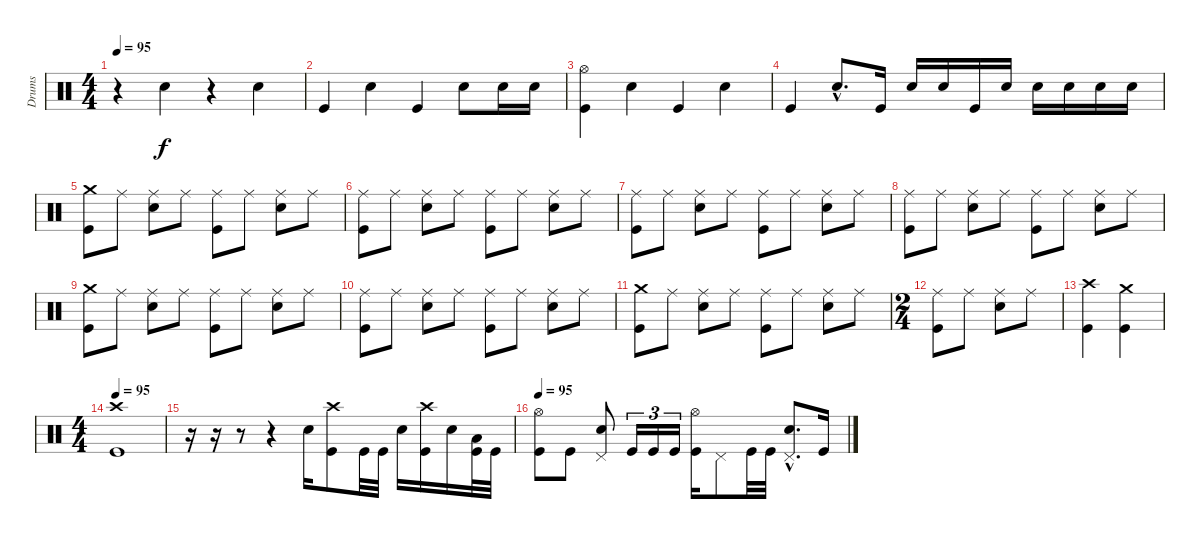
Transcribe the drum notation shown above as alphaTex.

\track ("Drums" "Drums") {instrument percussion}
\staff {score}
\articulation defaults
\ts (4 4)
\tempo 95
\clef neutral
\ks c
r.4{dy f} "Electric Snare (hit)".4 r.4 "Electric Snare (hit)".4 |
"Kick (hit)".4 "Electric Snare (hit)".4 "Kick (hit)".4 "Electric Snare (hit)".8 "Electric Snare (hit)".16 "Electric Snare (hit)".16 |
("Hi-Hat (open)" "Kick (hit)").4 "Electric Snare (hit)".4 "Kick (hit)".4 "Electric Snare (hit)".4 |
"Kick (hit)".4 "Electric Snare (hit)"{hac}.8{d} "Kick (hit)".16 "Electric Snare (hit)".16 "Electric Snare (hit)".16 "Kick (hit)".16 "Electric Snare (hit)".16 "Electric Snare (hit)".16 "Electric Snare (hit)".16 "Electric Snare (hit)".16 "Electric Snare (hit)".16 |
("Crash medium (hit)" "Kick (hit)").8 "Ride (middle)".8 ("Ride (middle)" "Electric Snare (hit)").8 "Ride (middle)".8 ("Ride (middle)" "Kick (hit)").8 "Ride (middle)".8 ("Ride (middle)" "Electric Snare (hit)").8 "Ride (middle)".8 |
("Ride (middle)" "Kick (hit)").8 "Ride (middle)".8 ("Ride (middle)" "Electric Snare (hit)").8 "Ride (middle)".8 ("Ride (middle)" "Kick (hit)").8 "Ride (middle)".8 ("Ride (middle)" "Electric Snare (hit)").8 "Ride (middle)".8 |
("Ride (middle)" "Kick (hit)").8 "Ride (middle)".8 ("Ride (middle)" "Electric Snare (hit)").8 "Ride (middle)".8 ("Ride (middle)" "Kick (hit)").8 "Ride (middle)".8 ("Ride (middle)" "Electric Snare (hit)").8 "Ride (middle)".8 |
("Ride (middle)" "Kick (hit)").8 "Ride (middle)".8 ("Ride (middle)" "Electric Snare (hit)").8 "Ride (middle)".8 ("Ride (middle)" "Kick (hit)").8 "Ride (middle)".8 ("Ride (middle)" "Electric Snare (hit)").8 "Ride (middle)".8 |
("Crash medium (hit)" "Kick (hit)").8 "Ride (middle)".8 ("Ride (middle)" "Electric Snare (hit)").8 "Ride (middle)".8 ("Ride (middle)" "Kick (hit)").8 "Ride (middle)".8 ("Ride (middle)" "Electric Snare (hit)").8 "Ride (middle)".8 |
("Ride (middle)" "Kick (hit)").8 "Ride (middle)".8 ("Ride (middle)" "Electric Snare (hit)").8 "Ride (middle)".8 ("Ride (middle)" "Kick (hit)").8 "Ride (middle)".8 ("Ride (middle)" "Electric Snare (hit)").8 "Ride (middle)".8 |
("Crash medium (hit)" "Kick (hit)").8 "Ride (middle)".8 ("Ride (middle)" "Electric Snare (hit)").8 "Ride (middle)".8 ("Ride (middle)" "Kick (hit)").8 "Ride (middle)".8 ("Ride (middle)" "Electric Snare (hit)").8 "Ride (middle)".8 |
\ts (2 4)
("Ride (middle)" "Kick (hit)").8 "Ride (middle)".8 ("Ride (middle)" "Electric Snare (hit)").8 "Ride (middle)".8 |
("Crash high (hit)" "Kick (hit)").4 ("Crash medium (hit)" "Kick (hit)").4 |
\ts (4 4)
\tempo 95
("Crash high (hit)" "Kick (hit)").1 |
r.16 r.16 r.8 r.4 "Electric Snare (hit)".16 ("Crash high (hit)" "Kick (hit)").8 "Kick (hit)".32 "Kick (hit)".32 "Electric Snare (hit)".16 ("Crash high (hit)" "Kick (hit)").16 "Electric Snare (hit)".16 ("Low Floor Tom (hit)" "Kick (hit)").32 "Kick (hit)".32 |
\tempo 95
("Hi-Hat (open)" "Kick (hit)").8 "Kick (hit)".8 ("Pedal Hi-Hat (hit)" "Electric Snare (hit)").8 "Kick (hit)".16{tu (3 2)} "Kick (hit)".16{tu (3 2)} "Kick (hit)".16{tu (3 2)} ("Hi-Hat (open)" "Kick (hit)").16 "Pedal Hi-Hat (hit)".8 "Kick (hit)".32 "Kick (hit)".32 ("Pedal Hi-Hat (hit)"{hac} "Electric Snare (hit)"{hac}).8{d} "Kick (hit)".16
